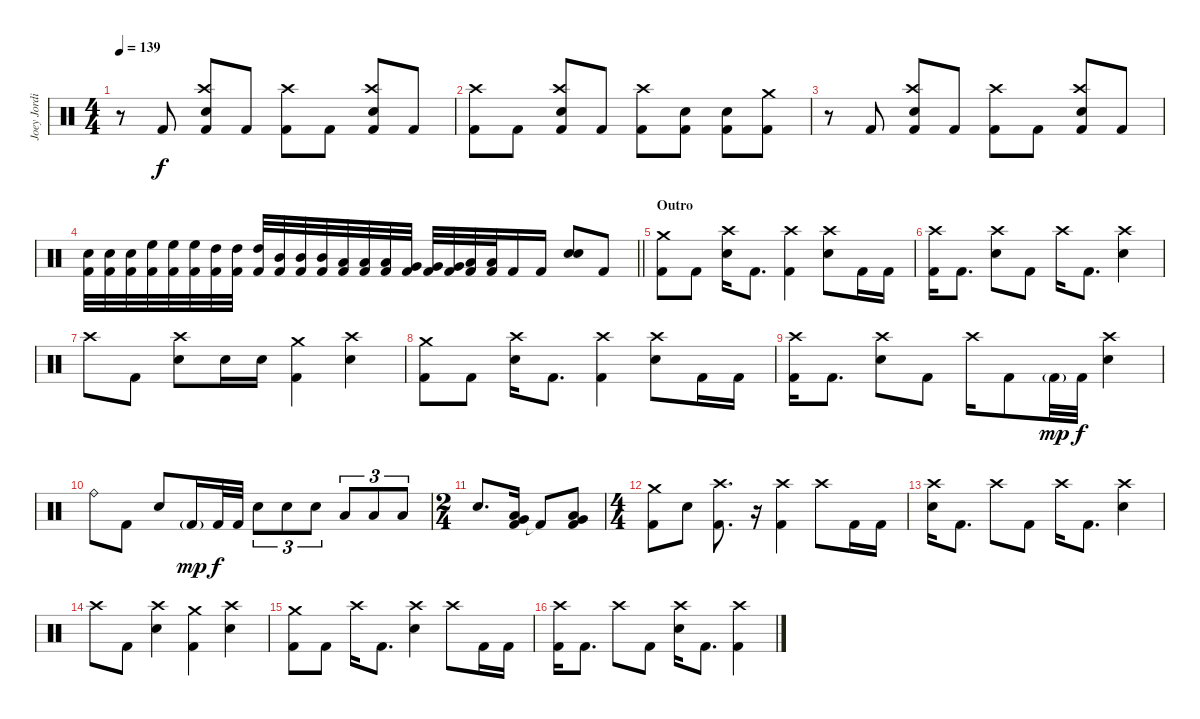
\track ("Joey Jordison" "Joey Jordi") {instrument percussion}
\staff {score}
\articulation defaults
\ts (4 4)
\tempo 139
\clef neutral
\ks c
r.8{dy f} "Kick (hit) 2".8 ("Crash high (hit)" "Electric Snare (hit)" "Kick (hit) 2").8 "Kick (hit) 2".8 ("Crash high (hit)" "Kick (hit) 2").8 "Kick (hit) 2".8 ("Crash high (hit)" "Electric Snare (hit)" "Kick (hit) 2").8 "Kick (hit) 2".8 |
("Crash high (hit)" "Kick (hit) 2").8 "Kick (hit) 2".8 ("Crash high (hit)" "Electric Snare (hit)" "Kick (hit) 2").8 "Kick (hit) 2".8 ("Crash high (hit)" "Kick (hit) 2").8 ("Electric Snare (hit)" "Kick (hit) 2").8 ("Electric Snare (hit)" "Kick (hit) 2").8 ("Crash medium (hit)" "Kick (hit) 2").8 |
r.8 "Kick (hit) 2".8 ("Crash high (hit)" "Electric Snare (hit)" "Kick (hit) 2").8 "Kick (hit) 2".8 ("Crash high (hit)" "Kick (hit) 2").8 "Kick (hit) 2".8 ("Crash high (hit)" "Electric Snare (hit)" "Kick (hit) 2").8 "Kick (hit) 2".8 |
\barLineRight lightlight
("Electric Snare (hit)" "Kick (hit) 2").32 ("Electric Snare (hit)" "Kick (hit) 2").32 ("Electric Snare (hit)" "Kick (hit) 2").32 ("High Floor Tom (hit)" "Kick (hit) 2").32 ("High Floor Tom (hit)" "Kick (hit) 2").32 ("High Floor Tom (hit)" "Kick (hit) 2").32 ("High Tom (hit)" "Kick (hit) 2").32 ("High Tom (hit)" "Kick (hit) 2").32 ("High Tom (hit)" "Kick (hit) 2").32 ("Mid Tom (hit)" "Kick (hit) 2").32 ("Mid Tom (hit)" "Kick (hit) 2").32 ("Mid Tom (hit)" "Kick (hit) 2").32 ("Low Tom (hit)" "Kick (hit) 2").32 ("Low Tom (hit)" "Kick (hit) 2").32 ("Low Tom (hit)" "Kick (hit) 2").32 ("Very Low Tom (hit)" "Kick (hit) 2").32 ("Very Low Tom (hit)" "Kick (hit) 2").32 ("Very Low Tom (hit)" "Kick (hit) 2").32 ("Low Floor Tom (hit)" "Kick (hit) 2").32 ("Low Floor Tom (hit)" "Kick (hit) 2").32 "Kick (hit) 2".16 "Kick (hit) 2".16 ("Electric Snare (hit)" "Electric Snare (hit)").8{bd 240} "Kick (hit) 2".8 |
\section ("" "Outro")
("Crash medium (hit)" "Kick (hit) 2").8 "Kick (hit) 2".8 ("Crash high (hit)" "Electric Snare (hit)").16 "Kick (hit) 2".8{d} ("Crash high (hit)" "Kick (hit) 2").4 ("Crash high (hit)" "Electric Snare (hit)").8 "Kick (hit) 2".16 "Kick (hit) 2".16 |
("Crash high (hit)" "Kick (hit) 2").16 "Kick (hit) 2".8{d} ("Crash high (hit)" "Electric Snare (hit)").8 "Kick (hit) 2".8 "Crash high (hit)".16 "Kick (hit) 2".8{d} ("Crash high (hit)" "Electric Snare (hit)").4 |
"Crash high (hit)".8 "Kick (hit) 2".8 ("Crash high (hit)" "Electric Snare (hit)").8 "Electric Snare (hit)".16 "Electric Snare (hit)".16 ("Crash medium (hit)" "Kick (hit) 2").4 ("Crash high (hit)" "Electric Snare (hit)").4 |
("Crash medium (hit)" "Kick (hit) 2").8 "Kick (hit) 2".8 ("Crash high (hit)" "Electric Snare (hit)").16 "Kick (hit) 2".8{d} ("Crash high (hit)" "Kick (hit) 2").4 ("Crash high (hit)" "Electric Snare (hit)").8 "Kick (hit) 2".16 "Kick (hit) 2".16 |
("Crash high (hit)" "Kick (hit) 2").16 "Kick (hit) 2".8{d} ("Crash high (hit)" "Electric Snare (hit)").8 "Kick (hit) 2".8 "Crash high (hit)".16 "Kick (hit) 2".8 "Kick (hit) 2"{g}.32{dy mp} "Kick (hit) 2".32{dy f} ("Crash high (hit)" "Electric Snare (hit)").4 |
"Ride (bell)".8 "Kick (hit) 2".8 "Electric Snare (hit)".8 "Kick (hit) 2"{g}.16{dy mp} "Kick (hit) 2".32{dy f} "Kick (hit) 2".32 "Electric Snare (hit)".8{tu (3 2)} "Electric Snare (hit)".8{tu (3 2)} "Electric Snare (hit)".8{tu (3 2)} "Low Tom (hit)".8{tu (3 2)} "Low Tom (hit)".8{tu (3 2)} "Low Tom (hit)".8{tu (3 2)} |
\ts (2 4)
"Electric Snare (hit)".8{d} ("Very Low Tom (hit)" "Low Floor Tom (hit)" "Kick (hit) 2").16 "Kick (hit) 2"{t}.8 ("Very Low Tom (hit)" "Low Floor Tom (hit)" "Kick (hit) 2").8 |
\ts (4 4)
("Crash medium (hit)" "Kick (hit) 2").8 "Electric Snare (hit)".8 ("Crash high (hit)" "Kick (hit) 2").8{d} r.16 ("Crash high (hit)" "Kick (hit) 2").4 "Crash high (hit)".8 "Kick (hit) 2".16 "Kick (hit) 2".16 |
("Crash high (hit)" "Electric Snare (hit)").16 "Kick (hit) 2".8{d} "Crash high (hit)".8 "Kick (hit) 2".8 "Crash high (hit)".16 "Kick (hit) 2".8{d} ("Crash high (hit)" "Electric Snare (hit)").4 |
"Crash high (hit)".8 "Kick (hit) 2".8 ("Crash high (hit)" "Electric Snare (hit)").4 ("Crash medium (hit)" "Kick (hit) 2").4 ("Crash high (hit)" "Electric Snare (hit)").4 |
("Crash medium (hit)" "Kick (hit) 2").8 "Kick (hit) 2".8 "Crash high (hit)".16 "Kick (hit) 2".8{d} ("Crash high (hit)" "Electric Snare (hit)").4 "Crash high (hit)".8 "Kick (hit) 2".16 "Kick (hit) 2".16 |
("Crash high (hit)" "Kick (hit) 2").16 "Kick (hit) 2".8{d} "Crash high (hit)".8 "Kick (hit) 2".8 ("Crash high (hit)" "Electric Snare (hit)").16 "Kick (hit) 2".8{d} ("Crash high (hit)" "Kick (hit) 2").4
